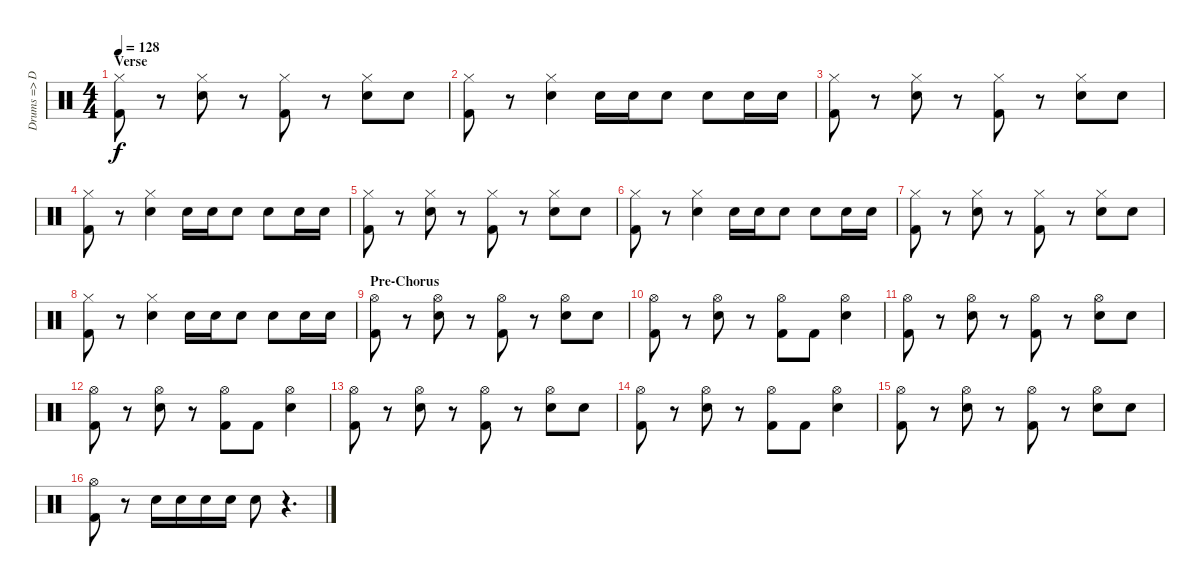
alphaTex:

\track ("Drums => Dave" "Drums => D") {instrument percussion}
\staff {score}
\articulation defaults
\ts (4 4)
\section ("" "Verse")
\tempo 128
\clef neutral
\ks c
("Hi-Hat (closed)" "Kick (hit) 2").8{dy f} r.8 ("Hi-Hat (closed)" "Snare (hit) 2").8 r.8 ("Hi-Hat (closed)" "Kick (hit) 2").8 r.8 ("Hi-Hat (closed)" "Snare (hit) 2").8 "Snare (hit) 2".8 |
("Hi-Hat (closed)" "Kick (hit) 2").8 r.8 ("Hi-Hat (closed)" "Snare (hit) 2").4 "Snare (hit) 2".16 "Snare (hit) 2".16 "Snare (hit) 2".8 "Snare (hit) 2".8 "Snare (hit) 2".16 "Snare (hit) 2".16 |
("Hi-Hat (closed)" "Kick (hit) 2").8 r.8 ("Hi-Hat (closed)" "Snare (hit) 2").8 r.8 ("Hi-Hat (closed)" "Kick (hit) 2").8 r.8 ("Hi-Hat (closed)" "Snare (hit) 2").8 "Snare (hit) 2".8 |
("Hi-Hat (closed)" "Kick (hit) 2").8 r.8 ("Hi-Hat (closed)" "Snare (hit) 2").4 "Snare (hit) 2".16 "Snare (hit) 2".16 "Snare (hit) 2".8 "Snare (hit) 2".8 "Snare (hit) 2".16 "Snare (hit) 2".16 |
("Hi-Hat (closed)" "Kick (hit) 2").8 r.8 ("Hi-Hat (closed)" "Snare (hit) 2").8 r.8 ("Hi-Hat (closed)" "Kick (hit) 2").8 r.8 ("Hi-Hat (closed)" "Snare (hit) 2").8 "Snare (hit) 2".8 |
("Hi-Hat (closed)" "Kick (hit) 2").8 r.8 ("Hi-Hat (closed)" "Snare (hit) 2").4 "Snare (hit) 2".16 "Snare (hit) 2".16 "Snare (hit) 2".8 "Snare (hit) 2".8 "Snare (hit) 2".16 "Snare (hit) 2".16 |
("Hi-Hat (closed)" "Kick (hit) 2").8 r.8 ("Hi-Hat (closed)" "Snare (hit) 2").8 r.8 ("Hi-Hat (closed)" "Kick (hit) 2").8 r.8 ("Hi-Hat (closed)" "Snare (hit) 2").8 "Snare (hit) 2".8 |
("Hi-Hat (closed)" "Kick (hit) 2").8 r.8 ("Hi-Hat (closed)" "Snare (hit) 2").4 "Snare (hit) 2".16 "Snare (hit) 2".16 "Snare (hit) 2".8 "Snare (hit) 2".8 "Snare (hit) 2".16 "Snare (hit) 2".16 |
\section ("" "Pre-Chorus")
("Hi-Hat (open)" "Kick (hit) 2").8 r.8 ("Hi-Hat (open)" "Snare (hit) 2").8 r.8 ("Hi-Hat (open)" "Kick (hit) 2").8 r.8 ("Hi-Hat (open)" "Snare (hit) 2").8 "Snare (hit) 2".8 |
("Hi-Hat (open)" "Kick (hit) 2").8 r.8 ("Hi-Hat (open)" "Snare (hit) 2").8 r.8 ("Hi-Hat (open)" "Kick (hit) 2").8 "Kick (hit) 2".8 ("Hi-Hat (open)" "Snare (hit) 2").4 |
("Hi-Hat (open)" "Kick (hit) 2").8 r.8 ("Hi-Hat (open)" "Snare (hit) 2").8 r.8 ("Hi-Hat (open)" "Kick (hit) 2").8 r.8 ("Hi-Hat (open)" "Snare (hit) 2").8 "Snare (hit) 2".8 |
("Hi-Hat (open)" "Kick (hit) 2").8 r.8 ("Hi-Hat (open)" "Snare (hit) 2").8 r.8 ("Hi-Hat (open)" "Kick (hit) 2").8 "Kick (hit) 2".8 ("Hi-Hat (open)" "Snare (hit) 2").4 |
("Hi-Hat (open)" "Kick (hit) 2").8 r.8 ("Hi-Hat (open)" "Snare (hit) 2").8 r.8 ("Hi-Hat (open)" "Kick (hit) 2").8 r.8 ("Hi-Hat (open)" "Snare (hit) 2").8 "Snare (hit) 2".8 |
("Hi-Hat (open)" "Kick (hit) 2").8 r.8 ("Hi-Hat (open)" "Snare (hit) 2").8 r.8 ("Hi-Hat (open)" "Kick (hit) 2").8 "Kick (hit) 2".8 ("Hi-Hat (open)" "Snare (hit) 2").4 |
("Hi-Hat (open)" "Kick (hit) 2").8 r.8 ("Hi-Hat (open)" "Snare (hit) 2").8 r.8 ("Hi-Hat (open)" "Kick (hit) 2").8 r.8 ("Hi-Hat (open)" "Snare (hit) 2").8 "Snare (hit) 2".8 |
("Hi-Hat (open)" "Kick (hit) 2").8 r.8 "Snare (hit) 2".16 "Snare (hit) 2".16 "Snare (hit) 2".16 "Snare (hit) 2".16 "Snare (hit) 2".8 r.4{d}
